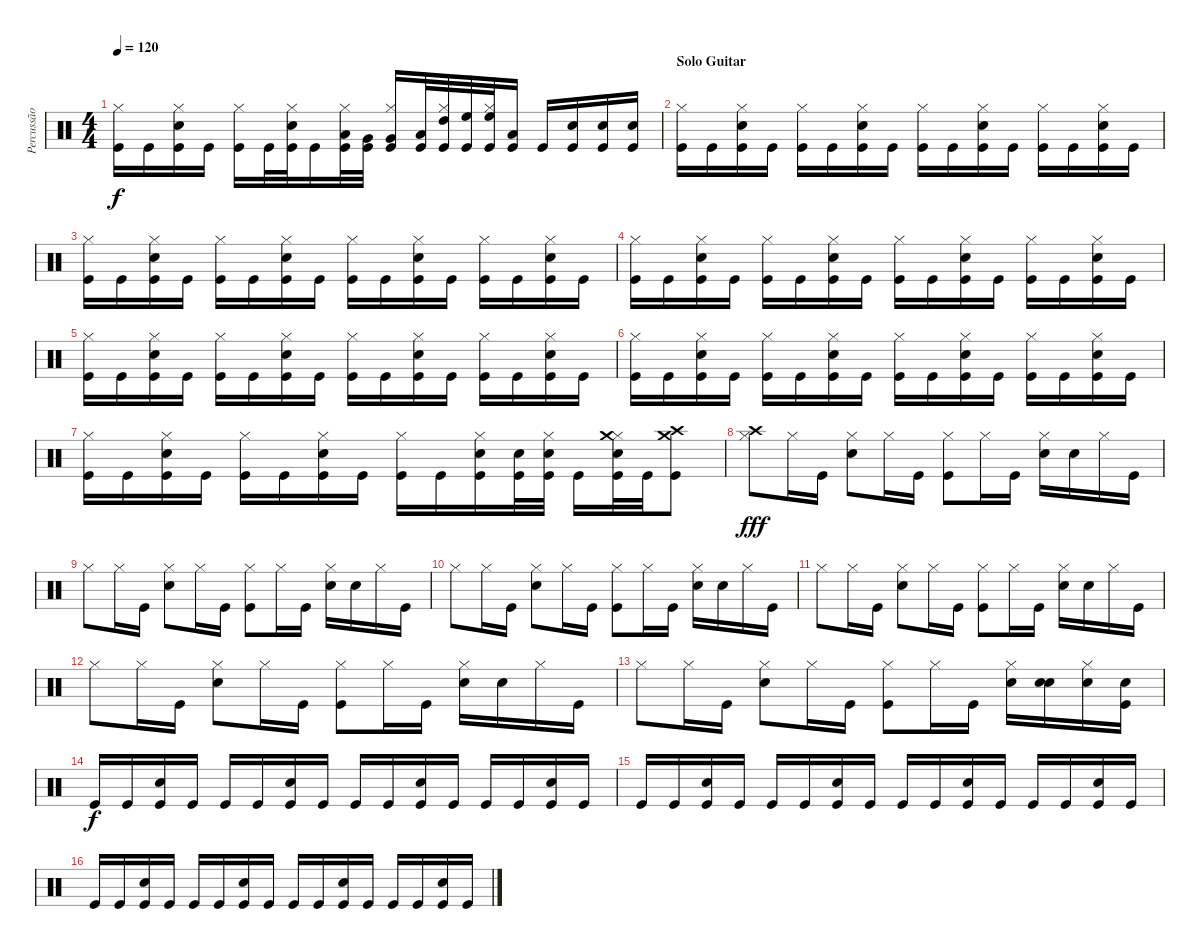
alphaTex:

\track ("Percussão" "Percussão") {instrument percussion}
\staff {score}
\articulation defaults
\ts (4 4)
\tempo 120
\clef neutral
\ks c
("Kick (hit)" "Hi-Hat (closed)").16{dy f} "Kick (hit)".16 ("Kick (hit)" "Hi-Hat (closed)" "Snare (hit) 2").16 "Kick (hit)".16 ("Kick (hit)" "Hi-Hat (closed)").16 "Kick (hit)".32 ("Kick (hit)" "Hi-Hat (closed)" "Snare (hit) 2").32 "Kick (hit)".16 ("Kick (hit)" "Hi-Hat (closed)" "Low Floor Tom (hit)").32 ("Kick (hit)" "Very Low Tom (hit)").32 ("Kick (hit)" "Hi-Hat (closed)" "Very Low Tom (hit)").16 ("Kick (hit)" "Low Tom (hit)").32 ("Kick (hit)" "Hi-Hat (closed)" "High Tom (hit)").32 ("Kick (hit)" "High Floor Tom (hit)").32 ("Kick (hit)" "Hi-Hat (closed)" "High Floor Tom (hit)").32 ("Kick (hit)" "Low Floor Tom (hit)").16 "Kick (hit)".16 ("Kick (hit)" "Snare (hit) 2").16 ("Kick (hit)" "Snare (hit) 2").16 ("Kick (hit)" "Snare (hit) 2").16 |
\section ("" "Solo Guitar")
("Kick (hit)" "Hi-Hat (closed)").16 "Kick (hit)".16 ("Kick (hit)" "Hi-Hat (closed)" "Snare (hit) 2").16 "Kick (hit)".16 ("Kick (hit)" "Hi-Hat (closed)").16 "Kick (hit)".16 ("Kick (hit)" "Hi-Hat (closed)" "Snare (hit) 2").16 "Kick (hit)".16 ("Kick (hit)" "Hi-Hat (closed)").16 "Kick (hit)".16 ("Kick (hit)" "Hi-Hat (closed)" "Snare (hit) 2").16 "Kick (hit)".16 ("Kick (hit)" "Hi-Hat (closed)").16 "Kick (hit)".16 ("Kick (hit)" "Hi-Hat (closed)" "Snare (hit) 2").16 "Kick (hit)".16 |
("Kick (hit)" "Hi-Hat (closed)").16 "Kick (hit)".16 ("Kick (hit)" "Hi-Hat (closed)" "Snare (hit) 2").16 "Kick (hit)".16 ("Kick (hit)" "Hi-Hat (closed)").16 "Kick (hit)".16 ("Kick (hit)" "Hi-Hat (closed)" "Snare (hit) 2").16 "Kick (hit)".16 ("Kick (hit)" "Hi-Hat (closed)").16 "Kick (hit)".16 ("Kick (hit)" "Hi-Hat (closed)" "Snare (hit) 2").16 "Kick (hit)".16 ("Kick (hit)" "Hi-Hat (closed)").16 "Kick (hit)".16 ("Kick (hit)" "Hi-Hat (closed)" "Snare (hit) 2").16 "Kick (hit)".16 |
("Kick (hit)" "Hi-Hat (closed)").16 "Kick (hit)".16 ("Kick (hit)" "Hi-Hat (closed)" "Snare (hit) 2").16 "Kick (hit)".16 ("Kick (hit)" "Hi-Hat (closed)").16 "Kick (hit)".16 ("Kick (hit)" "Hi-Hat (closed)" "Snare (hit) 2").16 "Kick (hit)".16 ("Kick (hit)" "Hi-Hat (closed)").16 "Kick (hit)".16 ("Kick (hit)" "Hi-Hat (closed)" "Snare (hit) 2").16 "Kick (hit)".16 ("Kick (hit)" "Hi-Hat (closed)").16 "Kick (hit)".16 ("Kick (hit)" "Hi-Hat (closed)" "Snare (hit) 2").16 "Kick (hit)".16 |
("Kick (hit)" "Hi-Hat (closed)").16 "Kick (hit)".16 ("Kick (hit)" "Hi-Hat (closed)" "Snare (hit) 2").16 "Kick (hit)".16 ("Kick (hit)" "Hi-Hat (closed)").16 "Kick (hit)".16 ("Kick (hit)" "Hi-Hat (closed)" "Snare (hit) 2").16 "Kick (hit)".16 ("Kick (hit)" "Hi-Hat (closed)").16 "Kick (hit)".16 ("Kick (hit)" "Hi-Hat (closed)" "Snare (hit) 2").16 "Kick (hit)".16 ("Kick (hit)" "Hi-Hat (closed)").16 "Kick (hit)".16 ("Kick (hit)" "Hi-Hat (closed)" "Snare (hit) 2").16 "Kick (hit)".16 |
("Kick (hit)" "Hi-Hat (closed)").16 "Kick (hit)".16 ("Kick (hit)" "Hi-Hat (closed)" "Snare (hit) 2").16 "Kick (hit)".16 ("Kick (hit)" "Hi-Hat (closed)").16 "Kick (hit)".16 ("Kick (hit)" "Hi-Hat (closed)" "Snare (hit) 2").16 "Kick (hit)".16 ("Kick (hit)" "Hi-Hat (closed)").16 "Kick (hit)".16 ("Kick (hit)" "Hi-Hat (closed)" "Snare (hit) 2").16 "Kick (hit)".16 ("Kick (hit)" "Hi-Hat (closed)").16 "Kick (hit)".16 ("Kick (hit)" "Hi-Hat (closed)" "Snare (hit) 2").16 "Kick (hit)".16 |
("Kick (hit)" "Hi-Hat (closed)").16 "Kick (hit)".16 ("Kick (hit)" "Hi-Hat (closed)" "Snare (hit) 2").16 "Kick (hit)".16 ("Kick (hit)" "Hi-Hat (closed)").16 "Kick (hit)".16 ("Kick (hit)" "Hi-Hat (closed)" "Snare (hit) 2").16 "Kick (hit)".16 ("Kick (hit)" "Hi-Hat (closed)").16 "Kick (hit)".16 ("Kick (hit)" "Hi-Hat (closed)" "Snare (hit) 2").16 ("Kick (hit)" "Snare (hit) 2").32 ("Kick (hit)" "Hi-Hat (closed)" "Snare (hit) 2").32 "Kick (hit)".16 ("Kick (hit)" "Hi-Hat (closed)" "Snare (hit) 2" "Crash medium (hit)").32 "Kick (hit)".32 ("Kick (hit)" "Crash medium (hit)" "Crash high (hit)").8 |
("Hi-Hat (closed)" "Crash high (hit)").8{dy fff} "Hi-Hat (closed)".16 "Kick (hit)".16 ("Hi-Hat (closed)" "Snare (hit) 2").8 "Hi-Hat (closed)".16 "Kick (hit)".16 ("Hi-Hat (closed)" "Kick (hit)").8 "Hi-Hat (closed)".16 "Kick (hit)".16 ("Hi-Hat (closed)" "Snare (hit) 2").16 "Snare (hit) 2".16 "Hi-Hat (closed)".16 "Kick (hit)".16 |
"Hi-Hat (closed)".8 "Hi-Hat (closed)".16 "Kick (hit)".16 ("Hi-Hat (closed)" "Snare (hit) 2").8 "Hi-Hat (closed)".16 "Kick (hit)".16 ("Hi-Hat (closed)" "Kick (hit)").8 "Hi-Hat (closed)".16 "Kick (hit)".16 ("Hi-Hat (closed)" "Snare (hit) 2").16 "Snare (hit) 2".16 "Hi-Hat (closed)".16 "Kick (hit)".16 |
"Hi-Hat (closed)".8 "Hi-Hat (closed)".16 "Kick (hit)".16 ("Hi-Hat (closed)" "Snare (hit) 2").8 "Hi-Hat (closed)".16 "Kick (hit)".16 ("Hi-Hat (closed)" "Kick (hit)").8 "Hi-Hat (closed)".16 "Kick (hit)".16 ("Hi-Hat (closed)" "Snare (hit) 2").16 "Snare (hit) 2".16 "Hi-Hat (closed)".16 "Kick (hit)".16 |
"Hi-Hat (closed)".8 "Hi-Hat (closed)".16 "Kick (hit)".16 ("Hi-Hat (closed)" "Snare (hit) 2").8 "Hi-Hat (closed)".16 "Kick (hit)".16 ("Hi-Hat (closed)" "Kick (hit)").8 "Hi-Hat (closed)".16 "Kick (hit)".16 ("Hi-Hat (closed)" "Snare (hit) 2").16 "Snare (hit) 2".16 "Hi-Hat (closed)".16 "Kick (hit)".16 |
"Hi-Hat (closed)".8 "Hi-Hat (closed)".16 "Kick (hit)".16 ("Hi-Hat (closed)" "Snare (hit) 2").8 "Hi-Hat (closed)".16 "Kick (hit)".16 ("Hi-Hat (closed)" "Kick (hit)").8 "Hi-Hat (closed)".16 "Kick (hit)".16 ("Hi-Hat (closed)" "Snare (hit) 2").16 "Snare (hit) 2".16 "Hi-Hat (closed)".16 "Kick (hit)".16 |
"Hi-Hat (closed)".8 "Hi-Hat (closed)".16 "Kick (hit)".16 ("Hi-Hat (closed)" "Snare (hit) 2").8 "Hi-Hat (closed)".16 "Kick (hit)".16 ("Hi-Hat (closed)" "Kick (hit)").8 "Hi-Hat (closed)".16 "Kick (hit)".16 ("Hi-Hat (closed)" "Snare (hit) 2").16 ("Snare (hit) 2" "Snare (hit) 2").16 ("Hi-Hat (closed)" "Snare (hit) 2").16 ("Kick (hit)" "Snare (hit) 2").16 |
"Kick (hit)".16{dy f} "Kick (hit)".16 ("Kick (hit)" "Snare (hit) 2").16 "Kick (hit)".16 "Kick (hit)".16 "Kick (hit)".16 ("Kick (hit)" "Snare (hit) 2").16 "Kick (hit)".16 "Kick (hit)".16 "Kick (hit)".16 ("Kick (hit)" "Snare (hit) 2").16 "Kick (hit)".16 "Kick (hit)".16 "Kick (hit)".16 ("Kick (hit)" "Snare (hit) 2").16 "Kick (hit)".16 |
"Kick (hit)".16 "Kick (hit)".16 ("Kick (hit)" "Snare (hit) 2").16 "Kick (hit)".16 "Kick (hit)".16 "Kick (hit)".16 ("Kick (hit)" "Snare (hit) 2").16 "Kick (hit)".16 "Kick (hit)".16 "Kick (hit)".16 ("Kick (hit)" "Snare (hit) 2").16 "Kick (hit)".16 "Kick (hit)".16 "Kick (hit)".16 ("Kick (hit)" "Snare (hit) 2").16 "Kick (hit)".16 |
"Kick (hit)".16 "Kick (hit)".16 ("Kick (hit)" "Snare (hit) 2").16 "Kick (hit)".16 "Kick (hit)".16 "Kick (hit)".16 ("Kick (hit)" "Snare (hit) 2").16 "Kick (hit)".16 "Kick (hit)".16 "Kick (hit)".16 ("Kick (hit)" "Snare (hit) 2").16 "Kick (hit)".16 "Kick (hit)".16 "Kick (hit)".16 ("Kick (hit)" "Snare (hit) 2").16 "Kick (hit)".16
